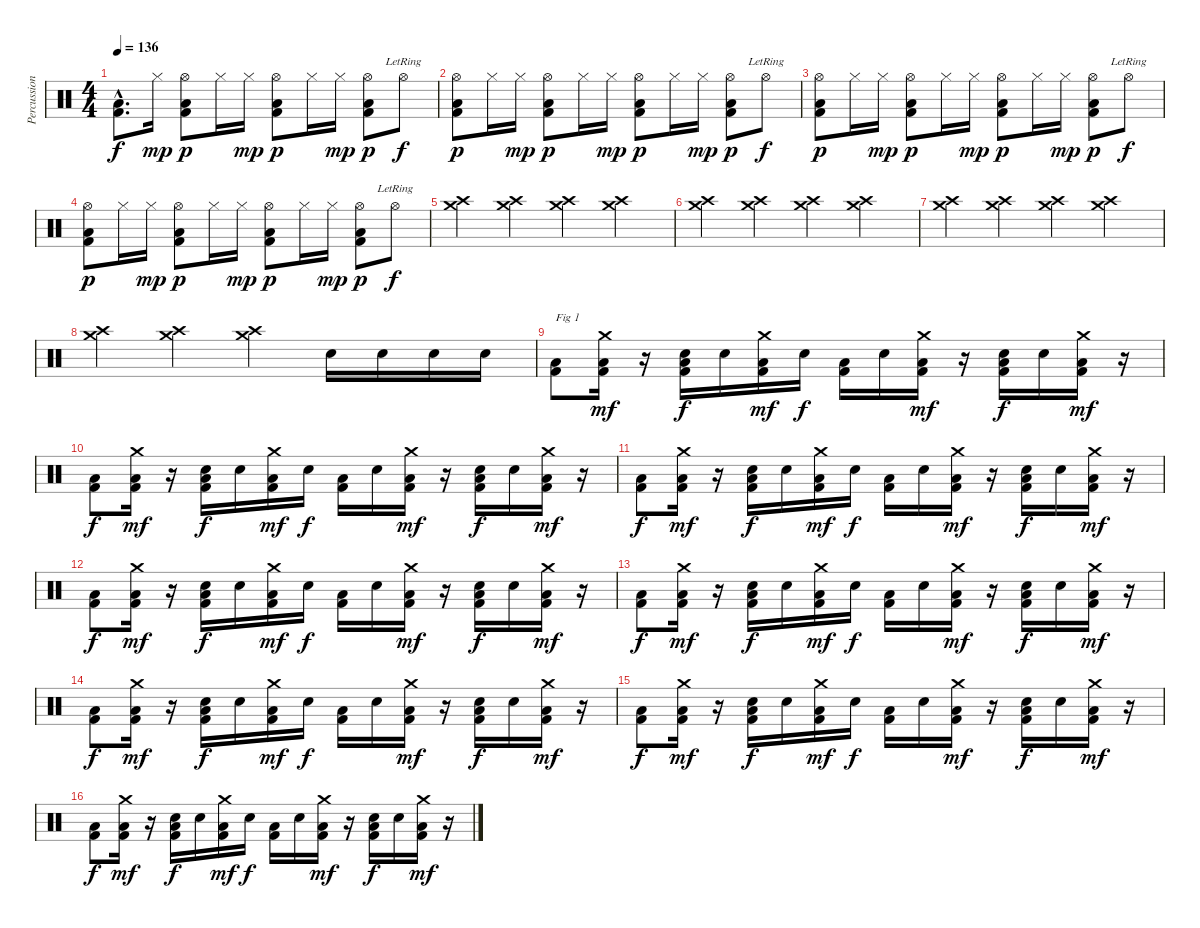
\track ("Percussions" "Percussion") {instrument percussion}
\staff {score}
\articulation defaults
\ts (4 4)
\tempo 136
\clef neutral
\ks c
("Low Floor Tom (hit)"{hac} "Kick (hit) 2"{hac}).8{d dy f} "Hi-Hat (closed)".16{dy mp} ("Low Floor Tom (hit)" "Kick (hit) 2" "Hi-Hat (open)").8{dy p} "Hi-Hat (closed)".16 "Hi-Hat (closed)".16{dy mp} ("Low Floor Tom (hit)" "Kick (hit) 2" "Hi-Hat (open)").8{dy p} "Hi-Hat (closed)".16 "Hi-Hat (closed)".16{dy mp} ("Low Floor Tom (hit)" "Kick (hit) 2" "Hi-Hat (open)").8{dy p} "Hi-Hat (open)"{lr}.8{dy f} |
("Low Floor Tom (hit)" "Kick (hit) 2" "Hi-Hat (open)").8{dy p} "Hi-Hat (closed)".16 "Hi-Hat (closed)".16{dy mp} ("Low Floor Tom (hit)" "Kick (hit) 2" "Hi-Hat (open)").8{dy p} "Hi-Hat (closed)".16 "Hi-Hat (closed)".16{dy mp} ("Low Floor Tom (hit)" "Kick (hit) 2" "Hi-Hat (open)").8{dy p} "Hi-Hat (closed)".16 "Hi-Hat (closed)".16{dy mp} ("Low Floor Tom (hit)" "Kick (hit) 2" "Hi-Hat (open)").8{dy p} "Hi-Hat (open)"{lr}.8{dy f} |
("Low Floor Tom (hit)" "Kick (hit) 2" "Hi-Hat (open)").8{dy p} "Hi-Hat (closed)".16 "Hi-Hat (closed)".16{dy mp} ("Low Floor Tom (hit)" "Kick (hit) 2" "Hi-Hat (open)").8{dy p} "Hi-Hat (closed)".16 "Hi-Hat (closed)".16{dy mp} ("Low Floor Tom (hit)" "Kick (hit) 2" "Hi-Hat (open)").8{dy p} "Hi-Hat (closed)".16 "Hi-Hat (closed)".16{dy mp} ("Low Floor Tom (hit)" "Kick (hit) 2" "Hi-Hat (open)").8{dy p} "Hi-Hat (open)"{lr}.8{dy f} |
("Low Floor Tom (hit)" "Kick (hit) 2" "Hi-Hat (open)").8{dy p} "Hi-Hat (closed)".16 "Hi-Hat (closed)".16{dy mp} ("Low Floor Tom (hit)" "Kick (hit) 2" "Hi-Hat (open)").8{dy p} "Hi-Hat (closed)".16 "Hi-Hat (closed)".16{dy mp} ("Low Floor Tom (hit)" "Kick (hit) 2" "Hi-Hat (open)").8{dy p} "Hi-Hat (closed)".16 "Hi-Hat (closed)".16{dy mp} ("Low Floor Tom (hit)" "Kick (hit) 2" "Hi-Hat (open)").8{dy p} "Hi-Hat (open)"{lr}.8{dy f} |
("Crash high (hit)" "Crash medium (hit)").4 ("Crash high (hit)" "Crash medium (hit)").4 ("Crash high (hit)" "Crash medium (hit)").4 ("Crash high (hit)" "Crash medium (hit)").4 |
("Crash high (hit)" "Crash medium (hit)").4 ("Crash high (hit)" "Crash medium (hit)").4 ("Crash high (hit)" "Crash medium (hit)").4 ("Crash high (hit)" "Crash medium (hit)").4 |
("Crash high (hit)" "Crash medium (hit)").4 ("Crash high (hit)" "Crash medium (hit)").4 ("Crash high (hit)" "Crash medium (hit)").4 ("Crash high (hit)" "Crash medium (hit)").4 |
("Crash high (hit)" "Crash medium (hit)").4 ("Crash high (hit)" "Crash medium (hit)").4 ("Crash high (hit)" "Crash medium (hit)").4 "Electric Snare (hit)".16 "Electric Snare (hit)".16 "Electric Snare (hit)".16 "Electric Snare (hit)".16 |
("Low Floor Tom (hit)" "Kick (hit) 2").8{txt "Fig 1"} ("Low Floor Tom (hit)" "Kick (hit) 2" "Crash medium (hit)").16{dy mf} r.16 ("Low Floor Tom (hit)" "Kick (hit) 2" "Electric Snare (hit)").16{dy f} "Electric Snare (hit)".16 ("Low Floor Tom (hit)" "Kick (hit) 2" "Crash medium (hit)").16{dy mf} "Electric Snare (hit)".16{dy f} ("Low Floor Tom (hit)" "Kick (hit) 2").16 "Electric Snare (hit)".16 ("Low Floor Tom (hit)" "Kick (hit) 2" "Crash medium (hit)").16{dy mf} r.16 ("Low Floor Tom (hit)" "Kick (hit) 2" "Electric Snare (hit)").16{dy f} "Electric Snare (hit)".16 ("Low Floor Tom (hit)" "Kick (hit) 2" "Crash medium (hit)").16{dy mf} r.16 |
("Low Floor Tom (hit)" "Kick (hit) 2").8{dy f} ("Low Floor Tom (hit)" "Kick (hit) 2" "Crash medium (hit)").16{dy mf} r.16 ("Low Floor Tom (hit)" "Kick (hit) 2" "Electric Snare (hit)").16{dy f} "Electric Snare (hit)".16 ("Low Floor Tom (hit)" "Kick (hit) 2" "Crash medium (hit)").16{dy mf} "Electric Snare (hit)".16{dy f} ("Low Floor Tom (hit)" "Kick (hit) 2").16 "Electric Snare (hit)".16 ("Low Floor Tom (hit)" "Kick (hit) 2" "Crash medium (hit)").16{dy mf} r.16 ("Low Floor Tom (hit)" "Kick (hit) 2" "Electric Snare (hit)").16{dy f} "Electric Snare (hit)".16 ("Low Floor Tom (hit)" "Kick (hit) 2" "Crash medium (hit)").16{dy mf} r.16 |
("Low Floor Tom (hit)" "Kick (hit) 2").8{dy f} ("Low Floor Tom (hit)" "Kick (hit) 2" "Crash medium (hit)").16{dy mf} r.16 ("Low Floor Tom (hit)" "Kick (hit) 2" "Electric Snare (hit)").16{dy f} "Electric Snare (hit)".16 ("Low Floor Tom (hit)" "Kick (hit) 2" "Crash medium (hit)").16{dy mf} "Electric Snare (hit)".16{dy f} ("Low Floor Tom (hit)" "Kick (hit) 2").16 "Electric Snare (hit)".16 ("Low Floor Tom (hit)" "Kick (hit) 2" "Crash medium (hit)").16{dy mf} r.16 ("Low Floor Tom (hit)" "Kick (hit) 2" "Electric Snare (hit)").16{dy f} "Electric Snare (hit)".16 ("Low Floor Tom (hit)" "Kick (hit) 2" "Crash medium (hit)").16{dy mf} r.16 |
("Low Floor Tom (hit)" "Kick (hit) 2").8{dy f} ("Low Floor Tom (hit)" "Kick (hit) 2" "Crash medium (hit)").16{dy mf} r.16 ("Low Floor Tom (hit)" "Kick (hit) 2" "Electric Snare (hit)").16{dy f} "Electric Snare (hit)".16 ("Low Floor Tom (hit)" "Kick (hit) 2" "Crash medium (hit)").16{dy mf} "Electric Snare (hit)".16{dy f} ("Low Floor Tom (hit)" "Kick (hit) 2").16 "Electric Snare (hit)".16 ("Low Floor Tom (hit)" "Kick (hit) 2" "Crash medium (hit)").16{dy mf} r.16 ("Low Floor Tom (hit)" "Kick (hit) 2" "Electric Snare (hit)").16{dy f} "Electric Snare (hit)".16 ("Low Floor Tom (hit)" "Kick (hit) 2" "Crash medium (hit)").16{dy mf} r.16 |
("Low Floor Tom (hit)" "Kick (hit) 2").8{dy f} ("Low Floor Tom (hit)" "Kick (hit) 2" "Crash medium (hit)").16{dy mf} r.16 ("Low Floor Tom (hit)" "Kick (hit) 2" "Electric Snare (hit)").16{dy f} "Electric Snare (hit)".16 ("Low Floor Tom (hit)" "Kick (hit) 2" "Crash medium (hit)").16{dy mf} "Electric Snare (hit)".16{dy f} ("Low Floor Tom (hit)" "Kick (hit) 2").16 "Electric Snare (hit)".16 ("Low Floor Tom (hit)" "Kick (hit) 2" "Crash medium (hit)").16{dy mf} r.16 ("Low Floor Tom (hit)" "Kick (hit) 2" "Electric Snare (hit)").16{dy f} "Electric Snare (hit)".16 ("Low Floor Tom (hit)" "Kick (hit) 2" "Crash medium (hit)").16{dy mf} r.16 |
("Low Floor Tom (hit)" "Kick (hit) 2").8{dy f} ("Low Floor Tom (hit)" "Kick (hit) 2" "Crash medium (hit)").16{dy mf} r.16 ("Low Floor Tom (hit)" "Kick (hit) 2" "Electric Snare (hit)").16{dy f} "Electric Snare (hit)".16 ("Low Floor Tom (hit)" "Kick (hit) 2" "Crash medium (hit)").16{dy mf} "Electric Snare (hit)".16{dy f} ("Low Floor Tom (hit)" "Kick (hit) 2").16 "Electric Snare (hit)".16 ("Low Floor Tom (hit)" "Kick (hit) 2" "Crash medium (hit)").16{dy mf} r.16 ("Low Floor Tom (hit)" "Kick (hit) 2" "Electric Snare (hit)").16{dy f} "Electric Snare (hit)".16 ("Low Floor Tom (hit)" "Kick (hit) 2" "Crash medium (hit)").16{dy mf} r.16 |
("Low Floor Tom (hit)" "Kick (hit) 2").8{dy f} ("Low Floor Tom (hit)" "Kick (hit) 2" "Crash medium (hit)").16{dy mf} r.16 ("Low Floor Tom (hit)" "Kick (hit) 2" "Electric Snare (hit)").16{dy f} "Electric Snare (hit)".16 ("Low Floor Tom (hit)" "Kick (hit) 2" "Crash medium (hit)").16{dy mf} "Electric Snare (hit)".16{dy f} ("Low Floor Tom (hit)" "Kick (hit) 2").16 "Electric Snare (hit)".16 ("Low Floor Tom (hit)" "Kick (hit) 2" "Crash medium (hit)").16{dy mf} r.16 ("Low Floor Tom (hit)" "Kick (hit) 2" "Electric Snare (hit)").16{dy f} "Electric Snare (hit)".16 ("Low Floor Tom (hit)" "Kick (hit) 2" "Crash medium (hit)").16{dy mf} r.16 |
("Low Floor Tom (hit)" "Kick (hit) 2").8{dy f} ("Low Floor Tom (hit)" "Kick (hit) 2" "Crash medium (hit)").16{dy mf} r.16 ("Low Floor Tom (hit)" "Kick (hit) 2" "Electric Snare (hit)").16{dy f} "Electric Snare (hit)".16 ("Low Floor Tom (hit)" "Kick (hit) 2" "Crash medium (hit)").16{dy mf} "Electric Snare (hit)".16{dy f} ("Low Floor Tom (hit)" "Kick (hit) 2").16 "Electric Snare (hit)".16 ("Low Floor Tom (hit)" "Kick (hit) 2" "Crash medium (hit)").16{dy mf} r.16 ("Low Floor Tom (hit)" "Kick (hit) 2" "Electric Snare (hit)").16{dy f} "Electric Snare (hit)".16 ("Low Floor Tom (hit)" "Kick (hit) 2" "Crash medium (hit)").16{dy mf} r.16
